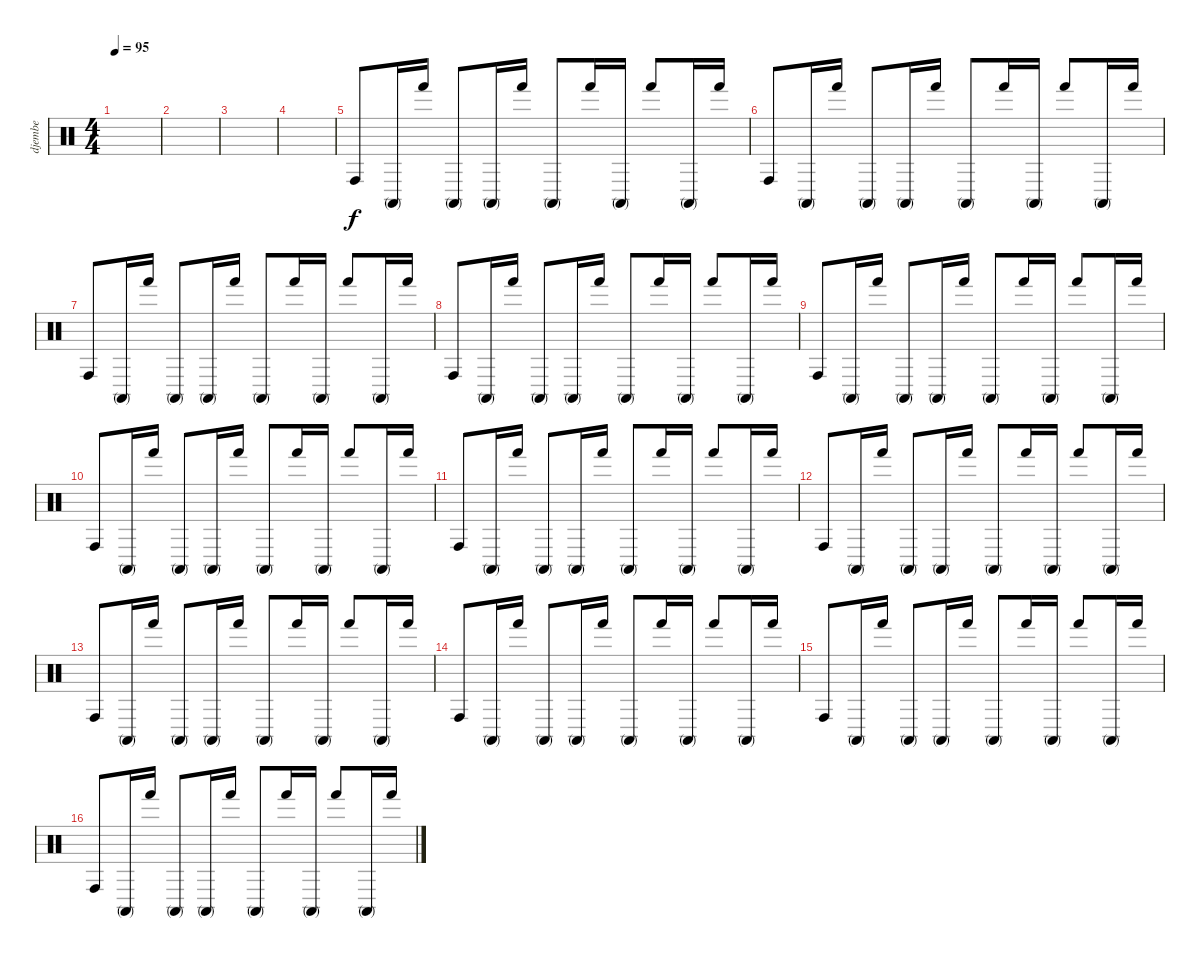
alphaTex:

\track ("djembe" "djembe") {instrument percussion}
\staff {score}
\articulation defaults
\ts (4 4)
\tempo 95
\clef neutral
\ks c
|
|
|
|
"Conga high (hit)".8 "Conga high (mute)".16 "Hand (hit)".16 "Conga high (mute)".8 "Conga high (mute)".16 "Hand (hit)".16 "Conga high (mute)".8 "Hand (hit)".16 "Conga high (mute)".16 "Hand (hit)".8 "Conga high (mute)".16 "Hand (hit)".16 |
"Conga high (hit)".8 "Conga high (mute)".16 "Hand (hit)".16 "Conga high (mute)".8 "Conga high (mute)".16 "Hand (hit)".16 "Conga high (mute)".8 "Hand (hit)".16 "Conga high (mute)".16 "Hand (hit)".8 "Conga high (mute)".16 "Hand (hit)".16 |
"Conga high (hit)".8 "Conga high (mute)".16 "Hand (hit)".16 "Conga high (mute)".8 "Conga high (mute)".16 "Hand (hit)".16 "Conga high (mute)".8 "Hand (hit)".16 "Conga high (mute)".16 "Hand (hit)".8 "Conga high (mute)".16 "Hand (hit)".16 |
"Conga high (hit)".8 "Conga high (mute)".16 "Hand (hit)".16 "Conga high (mute)".8 "Conga high (mute)".16 "Hand (hit)".16 "Conga high (mute)".8 "Hand (hit)".16 "Conga high (mute)".16 "Hand (hit)".8 "Conga high (mute)".16 "Hand (hit)".16 |
"Conga high (hit)".8 "Conga high (mute)".16 "Hand (hit)".16 "Conga high (mute)".8 "Conga high (mute)".16 "Hand (hit)".16 "Conga high (mute)".8 "Hand (hit)".16 "Conga high (mute)".16 "Hand (hit)".8 "Conga high (mute)".16 "Hand (hit)".16 |
"Conga high (hit)".8 "Conga high (mute)".16 "Hand (hit)".16 "Conga high (mute)".8 "Conga high (mute)".16 "Hand (hit)".16 "Conga high (mute)".8 "Hand (hit)".16 "Conga high (mute)".16 "Hand (hit)".8 "Conga high (mute)".16 "Hand (hit)".16 |
"Conga high (hit)".8 "Conga high (mute)".16 "Hand (hit)".16 "Conga high (mute)".8 "Conga high (mute)".16 "Hand (hit)".16 "Conga high (mute)".8 "Hand (hit)".16 "Conga high (mute)".16 "Hand (hit)".8 "Conga high (mute)".16 "Hand (hit)".16 |
"Conga high (hit)".8 "Conga high (mute)".16 "Hand (hit)".16 "Conga high (mute)".8 "Conga high (mute)".16 "Hand (hit)".16 "Conga high (mute)".8 "Hand (hit)".16 "Conga high (mute)".16 "Hand (hit)".8 "Conga high (mute)".16 "Hand (hit)".16 |
"Conga high (hit)".8 "Conga high (mute)".16 "Hand (hit)".16 "Conga high (mute)".8 "Conga high (mute)".16 "Hand (hit)".16 "Conga high (mute)".8 "Hand (hit)".16 "Conga high (mute)".16 "Hand (hit)".8 "Conga high (mute)".16 "Hand (hit)".16 |
"Conga high (hit)".8 "Conga high (mute)".16 "Hand (hit)".16 "Conga high (mute)".8 "Conga high (mute)".16 "Hand (hit)".16 "Conga high (mute)".8 "Hand (hit)".16 "Conga high (mute)".16 "Hand (hit)".8 "Conga high (mute)".16 "Hand (hit)".16 |
"Conga high (hit)".8 "Conga high (mute)".16 "Hand (hit)".16 "Conga high (mute)".8 "Conga high (mute)".16 "Hand (hit)".16 "Conga high (mute)".8 "Hand (hit)".16 "Conga high (mute)".16 "Hand (hit)".8 "Conga high (mute)".16 "Hand (hit)".16 |
"Conga high (hit)".8 "Conga high (mute)".16 "Hand (hit)".16 "Conga high (mute)".8 "Conga high (mute)".16 "Hand (hit)".16 "Conga high (mute)".8 "Hand (hit)".16 "Conga high (mute)".16 "Hand (hit)".8 "Conga high (mute)".16 "Hand (hit)".16
